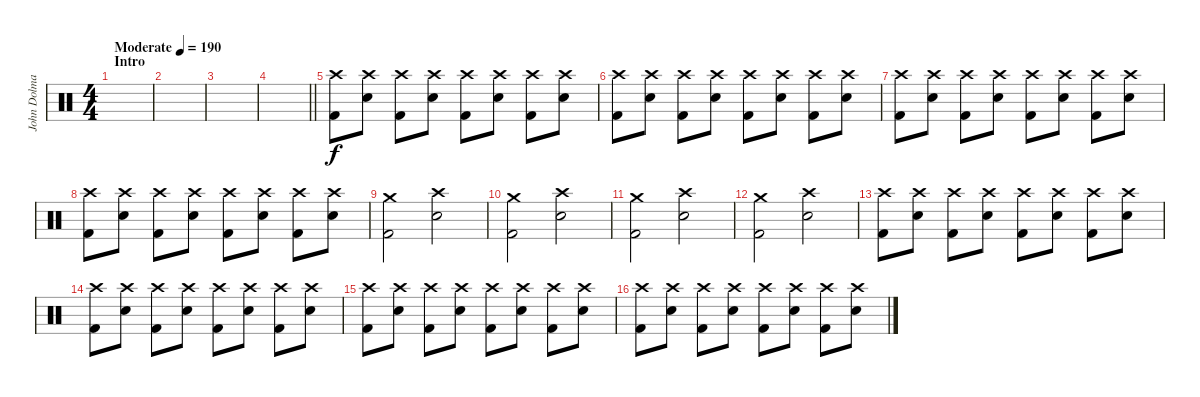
\track ("John Dolmayan" "John Dolma") {instrument percussion}
\staff {score}
\articulation defaults
\ts (4 4)
\section ("" "Intro")
\tempo (190 "Moderate")
\clef neutral
\ks c
|
|
|
\barLineRight lightlight
|
("Crash high (hit)" "Kick (hit) 2").8 ("Crash high (hit)" "Electric Snare (hit)").8 ("Crash high (hit)" "Kick (hit) 2").8 ("Crash high (hit)" "Electric Snare (hit)").8 ("Crash high (hit)" "Kick (hit) 2").8 ("Crash high (hit)" "Electric Snare (hit)").8 ("Crash high (hit)" "Kick (hit) 2").8 ("Crash high (hit)" "Electric Snare (hit)").8 |
("Crash high (hit)" "Kick (hit) 2").8 ("Crash high (hit)" "Electric Snare (hit)").8 ("Crash high (hit)" "Kick (hit) 2").8 ("Crash high (hit)" "Electric Snare (hit)").8 ("Crash high (hit)" "Kick (hit) 2").8 ("Crash high (hit)" "Electric Snare (hit)").8 ("Crash high (hit)" "Kick (hit) 2").8 ("Crash high (hit)" "Electric Snare (hit)").8 |
("Crash high (hit)" "Kick (hit) 2").8 ("Crash high (hit)" "Electric Snare (hit)").8 ("Crash high (hit)" "Kick (hit) 2").8 ("Crash high (hit)" "Electric Snare (hit)").8 ("Crash high (hit)" "Kick (hit) 2").8 ("Crash high (hit)" "Electric Snare (hit)").8 ("Crash high (hit)" "Kick (hit) 2").8 ("Crash high (hit)" "Electric Snare (hit)").8 |
("Crash high (hit)" "Kick (hit) 2").8 ("Crash high (hit)" "Electric Snare (hit)").8 ("Crash high (hit)" "Kick (hit) 2").8 ("Crash high (hit)" "Electric Snare (hit)").8 ("Crash high (hit)" "Kick (hit) 2").8 ("Crash high (hit)" "Electric Snare (hit)").8 ("Crash high (hit)" "Kick (hit) 2").8 ("Crash high (hit)" "Electric Snare (hit)").8 |
("Crash medium (hit)" "Kick (hit) 2").2 ("Crash high (hit)" "Electric Snare (hit)").2 |
("Crash medium (hit)" "Kick (hit) 2").2 ("Crash high (hit)" "Electric Snare (hit)").2 |
("Crash medium (hit)" "Kick (hit) 2").2 ("Crash high (hit)" "Electric Snare (hit)").2 |
("Crash medium (hit)" "Kick (hit) 2").2 ("Crash high (hit)" "Electric Snare (hit)").2 |
("Crash high (hit)" "Kick (hit) 2").8 ("Crash high (hit)" "Electric Snare (hit)").8 ("Crash high (hit)" "Kick (hit) 2").8 ("Crash high (hit)" "Electric Snare (hit)").8 ("Crash high (hit)" "Kick (hit) 2").8 ("Crash high (hit)" "Electric Snare (hit)").8 ("Crash high (hit)" "Kick (hit) 2").8 ("Crash high (hit)" "Electric Snare (hit)").8 |
("Crash high (hit)" "Kick (hit) 2").8 ("Crash high (hit)" "Electric Snare (hit)").8 ("Crash high (hit)" "Kick (hit) 2").8 ("Crash high (hit)" "Electric Snare (hit)").8 ("Crash high (hit)" "Kick (hit) 2").8 ("Crash high (hit)" "Electric Snare (hit)").8 ("Crash high (hit)" "Kick (hit) 2").8 ("Crash high (hit)" "Electric Snare (hit)").8 |
("Crash high (hit)" "Kick (hit) 2").8 ("Crash high (hit)" "Electric Snare (hit)").8 ("Crash high (hit)" "Kick (hit) 2").8 ("Crash high (hit)" "Electric Snare (hit)").8 ("Crash high (hit)" "Kick (hit) 2").8 ("Crash high (hit)" "Electric Snare (hit)").8 ("Crash high (hit)" "Kick (hit) 2").8 ("Crash high (hit)" "Electric Snare (hit)").8 |
("Crash high (hit)" "Kick (hit) 2").8 ("Crash high (hit)" "Electric Snare (hit)").8 ("Crash high (hit)" "Kick (hit) 2").8 ("Crash high (hit)" "Electric Snare (hit)").8 ("Crash high (hit)" "Kick (hit) 2").8 ("Crash high (hit)" "Electric Snare (hit)").8 ("Crash high (hit)" "Kick (hit) 2").8 ("Crash high (hit)" "Electric Snare (hit)").8
